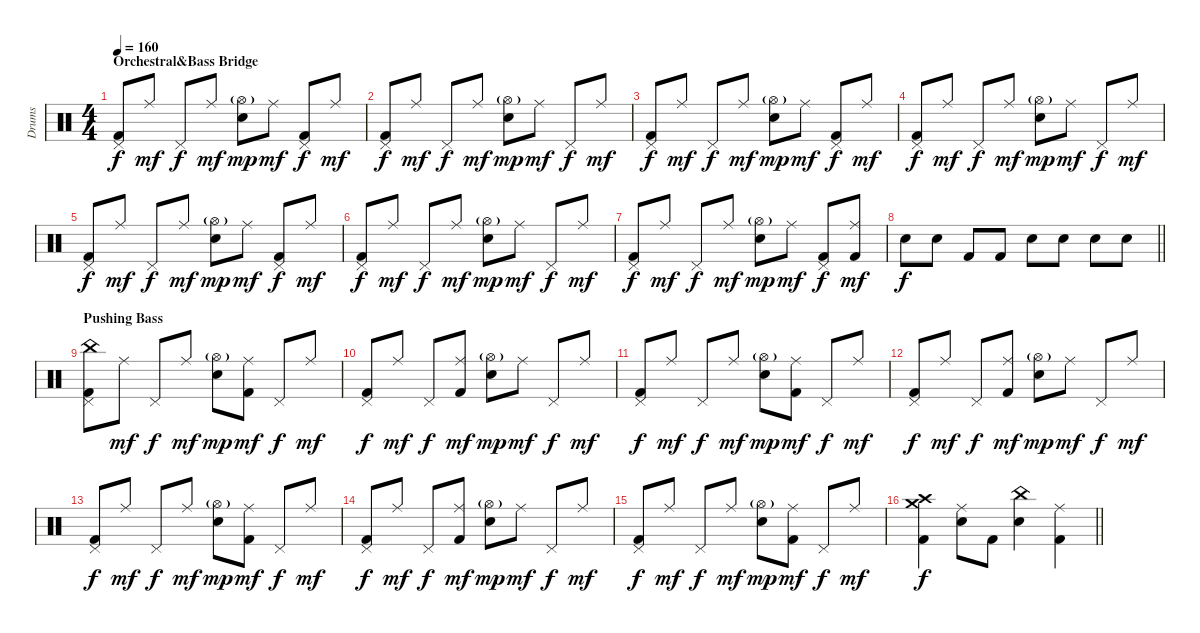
\track ("Drums" "Drums") {instrument percussion}
\staff {score}
\articulation defaults
\ts (4 4)
\section ("" "Orchestral&Bass Bridge")
\tempo 160
\clef neutral
\ks aminor
("Pedal Hi-Hat (hit)" "Kick (hit) 2").8{dy f} "Ride (middle)".8{dy mf} "Pedal Hi-Hat (hit)".8{dy f} "Ride (middle)".8{dy mf} ("Hi-Hat (open)"{g} "Electric Snare (hit)").8{dy mp} "Ride (middle)".8{dy mf} ("Pedal Hi-Hat (hit)" "Kick (hit) 2").8{dy f} "Ride (middle)".8{dy mf} |
("Pedal Hi-Hat (hit)" "Kick (hit) 2").8{dy f} "Ride (middle)".8{dy mf} "Pedal Hi-Hat (hit)".8{dy f} "Ride (middle)".8{dy mf} ("Hi-Hat (open)"{g} "Electric Snare (hit)").8{dy mp} "Ride (middle)".8{dy mf} "Pedal Hi-Hat (hit)".8{dy f} "Ride (middle)".8{dy mf} |
("Pedal Hi-Hat (hit)" "Kick (hit) 2").8{dy f} "Ride (middle)".8{dy mf} "Pedal Hi-Hat (hit)".8{dy f} "Ride (middle)".8{dy mf} ("Hi-Hat (open)"{g} "Electric Snare (hit)").8{dy mp} "Ride (middle)".8{dy mf} ("Pedal Hi-Hat (hit)" "Kick (hit) 2").8{dy f} "Ride (middle)".8{dy mf} |
("Pedal Hi-Hat (hit)" "Kick (hit) 2").8{dy f} "Ride (middle)".8{dy mf} "Pedal Hi-Hat (hit)".8{dy f} "Ride (middle)".8{dy mf} ("Hi-Hat (open)"{g} "Electric Snare (hit)").8{dy mp} "Ride (middle)".8{dy mf} "Pedal Hi-Hat (hit)".8{dy f} "Ride (middle)".8{dy mf} |
("Pedal Hi-Hat (hit)" "Kick (hit) 2").8{dy f} "Ride (middle)".8{dy mf} "Pedal Hi-Hat (hit)".8{dy f} "Ride (middle)".8{dy mf} ("Hi-Hat (open)"{g} "Electric Snare (hit)").8{dy mp} "Ride (middle)".8{dy mf} ("Pedal Hi-Hat (hit)" "Kick (hit) 2").8{dy f} "Ride (middle)".8{dy mf} |
("Pedal Hi-Hat (hit)" "Kick (hit) 2").8{dy f} "Ride (middle)".8{dy mf} "Pedal Hi-Hat (hit)".8{dy f} "Ride (middle)".8{dy mf} ("Hi-Hat (open)"{g} "Electric Snare (hit)").8{dy mp} "Ride (middle)".8{dy mf} "Pedal Hi-Hat (hit)".8{dy f} "Ride (middle)".8{dy mf} |
("Pedal Hi-Hat (hit)" "Kick (hit) 2").8{dy f} "Ride (middle)".8{dy mf} "Pedal Hi-Hat (hit)".8{dy f} "Ride (middle)".8{dy mf} ("Hi-Hat (open)"{g} "Electric Snare (hit)").8{dy mp} "Ride (middle)".8{dy mf} ("Pedal Hi-Hat (hit)" "Kick (hit) 2").8{dy f} ("Ride (middle)" "Kick (hit) 2").8{dy mf} |
\barLineRight lightlight "Electric Snare (hit)".8{dy f} "Snare (hit) 2".8 "Kick (hit) 2".8 "Kick (hit) 2".8 "Electric Snare (hit)".8 "Electric Snare (hit)".8 "Snare (hit) 2".8 "Electric Snare (hit)".8
|
\section ("" "Pushing Bass")
("Pedal Hi-Hat (hit)" "China (hit)" "Kick (hit) 2").8 "Ride (middle)".8{dy mf} "Pedal Hi-Hat (hit)".8{dy f} "Ride (middle)".8{dy mf} ("Hi-Hat (open)"{g} "Electric Snare (hit)").8{dy mp} ("Ride (middle)" "Kick (hit) 2").8{dy mf} "Pedal Hi-Hat (hit)".8{dy f} "Ride (middle)".8{dy mf} |
("Pedal Hi-Hat (hit)" "Kick (hit) 2").8{dy f} "Ride (middle)".8{dy mf} "Pedal Hi-Hat (hit)".8{dy f} ("Ride (middle)" "Kick (hit) 2").8{dy mf} ("Hi-Hat (open)"{g} "Electric Snare (hit)").8{dy mp} "Ride (middle)".8{dy mf} "Pedal Hi-Hat (hit)".8{dy f} "Ride (middle)".8{dy mf} |
("Pedal Hi-Hat (hit)" "Kick (hit) 2").8{dy f} "Ride (middle)".8{dy mf} "Pedal Hi-Hat (hit)".8{dy f} "Ride (middle)".8{dy mf} ("Hi-Hat (open)"{g} "Electric Snare (hit)").8{dy mp} ("Ride (middle)" "Kick (hit) 2").8{dy mf} "Pedal Hi-Hat (hit)".8{dy f} "Ride (middle)".8{dy mf} |
("Pedal Hi-Hat (hit)" "Kick (hit) 2").8{dy f} "Ride (middle)".8{dy mf} "Pedal Hi-Hat (hit)".8{dy f} ("Ride (middle)" "Kick (hit) 2").8{dy mf} ("Hi-Hat (open)"{g} "Electric Snare (hit)").8{dy mp} "Ride (middle)".8{dy mf} "Pedal Hi-Hat (hit)".8{dy f} "Ride (middle)".8{dy mf} |
("Pedal Hi-Hat (hit)" "Kick (hit) 2").8{dy f} "Ride (middle)".8{dy mf} "Pedal Hi-Hat (hit)".8{dy f} "Ride (middle)".8{dy mf} ("Hi-Hat (open)"{g} "Electric Snare (hit)").8{dy mp} ("Ride (middle)" "Kick (hit) 2").8{dy mf} "Pedal Hi-Hat (hit)".8{dy f} "Ride (middle)".8{dy mf} |
("Pedal Hi-Hat (hit)" "Kick (hit) 2").8{dy f} "Ride (middle)".8{dy mf} "Pedal Hi-Hat (hit)".8{dy f} ("Ride (middle)" "Kick (hit) 2").8{dy mf} ("Hi-Hat (open)"{g} "Electric Snare (hit)").8{dy mp} "Ride (middle)".8{dy mf} "Pedal Hi-Hat (hit)".8{dy f} "Ride (middle)".8{dy mf} |
("Pedal Hi-Hat (hit)" "Kick (hit) 2").8{dy f} "Ride (middle)".8{dy mf} "Pedal Hi-Hat (hit)".8{dy f} "Ride (middle)".8{dy mf} ("Hi-Hat (open)"{g} "Electric Snare (hit)").8{dy mp} ("Ride (middle)" "Kick (hit) 2").8{dy mf} "Pedal Hi-Hat (hit)".8{dy f} "Ride (middle)".8{dy mf} |
\barLineRight lightlight
("Crash high (hit)" "Crash medium (hit)" "Kick (hit) 2").4{dy f} ("Ride (middle)" "Electric Snare (hit)").8 "Kick (hit) 2".8 ("China (hit)" "Electric Snare (hit)").4 ("Ride (middle)" "Kick (hit) 2").4
